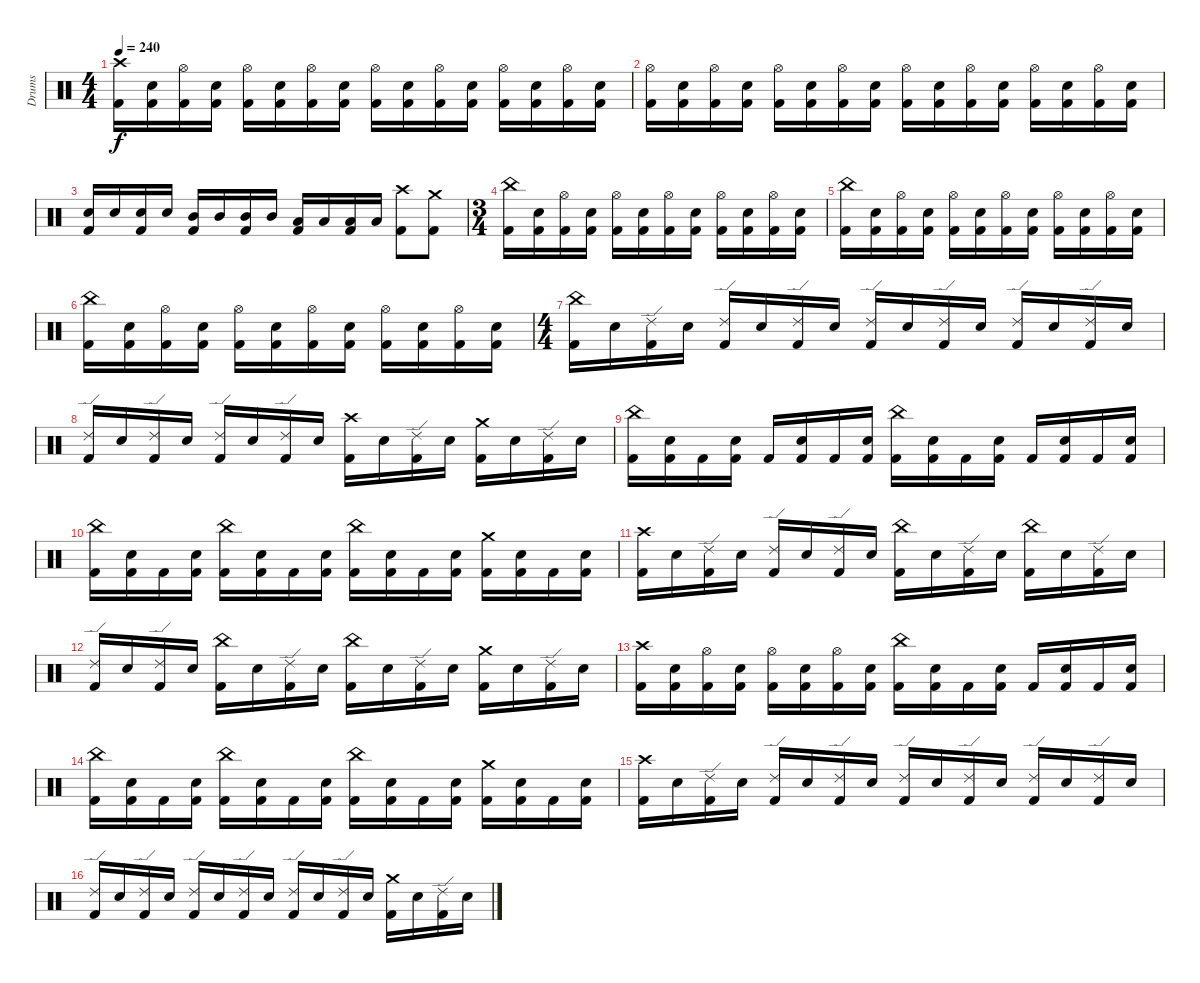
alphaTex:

\track ("Drums" "Drums") {instrument percussion}
\staff {score}
\articulation defaults
\ts (4 4)
\tempo 240
\clef neutral
\ks c
("Crash high (hit)" "Kick (hit) 2").16{dy f} ("Snare (hit) 2" "Kick (hit) 2").16 ("Hi-Hat (open)" "Kick (hit) 2").16 ("Snare (hit) 2" "Kick (hit) 2").16 ("Hi-Hat (open)" "Kick (hit) 2").16 ("Snare (hit) 2" "Kick (hit) 2").16 ("Hi-Hat (open)" "Kick (hit) 2").16 ("Snare (hit) 2" "Kick (hit) 2").16 ("Hi-Hat (open)" "Kick (hit) 2").16 ("Snare (hit) 2" "Kick (hit) 2").16 ("Hi-Hat (open)" "Kick (hit) 2").16 ("Snare (hit) 2" "Kick (hit) 2").16 ("Hi-Hat (open)" "Kick (hit) 2").16 ("Snare (hit) 2" "Kick (hit) 2").16 ("Hi-Hat (open)" "Kick (hit) 2").16 ("Snare (hit) 2" "Kick (hit) 2").16 |
("Hi-Hat (open)" "Kick (hit) 2").16 ("Snare (hit) 2" "Kick (hit) 2").16 ("Hi-Hat (open)" "Kick (hit) 2").16 ("Snare (hit) 2" "Kick (hit) 2").16 ("Hi-Hat (open)" "Kick (hit) 2").16 ("Snare (hit) 2" "Kick (hit) 2").16 ("Hi-Hat (open)" "Kick (hit) 2").16 ("Snare (hit) 2" "Kick (hit) 2").16 ("Hi-Hat (open)" "Kick (hit) 2").16 ("Snare (hit) 2" "Kick (hit) 2").16 ("Hi-Hat (open)" "Kick (hit) 2").16 ("Snare (hit) 2" "Kick (hit) 2").16 ("Hi-Hat (open)" "Kick (hit) 2").16 ("Snare (hit) 2" "Kick (hit) 2").16 ("Hi-Hat (open)" "Kick (hit) 2").16 ("Snare (hit) 2" "Kick (hit) 2").16 |
("Snare (hit) 2" "Kick (hit) 2").16 "Snare (hit) 2".16 ("Snare (hit) 2" "Kick (hit) 2").16 "Snare (hit) 2".16 ("Mid Tom (hit)" "Kick (hit) 2").16 "Mid Tom (hit)".16 ("Mid Tom (hit)" "Kick (hit) 2").16 "Mid Tom (hit)".16 ("Low Tom (hit)" "Kick (hit) 2").16 "Low Tom (hit)".16 ("Low Tom (hit)" "Kick (hit) 2").16 "Low Tom (hit)".16 ("Crash high (hit)" "Kick (hit) 2").8 ("Crash medium (hit)" "Kick (hit) 2").8 |
\ts (3 4)
("China (hit)" "Kick (hit) 2").16 ("Snare (hit) 2" "Kick (hit) 2").16 ("Hi-Hat (open)" "Kick (hit) 2").16 ("Snare (hit) 2" "Kick (hit) 2").16 ("Hi-Hat (open)" "Kick (hit) 2").16 ("Snare (hit) 2" "Kick (hit) 2").16 ("Hi-Hat (open)" "Kick (hit) 2").16 ("Snare (hit) 2" "Kick (hit) 2").16 ("Hi-Hat (open)" "Kick (hit) 2").16 ("Snare (hit) 2" "Kick (hit) 2").16 ("Hi-Hat (open)" "Kick (hit) 2").16 ("Snare (hit) 2" "Kick (hit) 2").16 |
("China (hit)" "Kick (hit) 2").16 ("Snare (hit) 2" "Kick (hit) 2").16 ("Hi-Hat (open)" "Kick (hit) 2").16 ("Snare (hit) 2" "Kick (hit) 2").16 ("Hi-Hat (open)" "Kick (hit) 2").16 ("Snare (hit) 2" "Kick (hit) 2").16 ("Hi-Hat (open)" "Kick (hit) 2").16 ("Snare (hit) 2" "Kick (hit) 2").16 ("Hi-Hat (open)" "Kick (hit) 2").16 ("Snare (hit) 2" "Kick (hit) 2").16 ("Hi-Hat (open)" "Kick (hit) 2").16 ("Snare (hit) 2" "Kick (hit) 2").16 |
("China (hit)" "Kick (hit) 2").16 ("Snare (hit) 2" "Kick (hit) 2").16 ("Hi-Hat (open)" "Kick (hit) 2").16 ("Snare (hit) 2" "Kick (hit) 2").16 ("Hi-Hat (open)" "Kick (hit) 2").16 ("Snare (hit) 2" "Kick (hit) 2").16 ("Hi-Hat (open)" "Kick (hit) 2").16 ("Snare (hit) 2" "Kick (hit) 2").16 ("Hi-Hat (open)" "Kick (hit) 2").16 ("Snare (hit) 2" "Kick (hit) 2").16 ("Hi-Hat (open)" "Kick (hit) 2").16 ("Snare (hit) 2" "Kick (hit) 2").16 |
\ts (4 4)
("China (hit)" "Kick (hit) 2").16 "Snare (hit) 2".16 ("Ride (edge) 2" "Kick (hit) 2").16 "Snare (hit) 2".16 ("Ride (edge) 2" "Kick (hit) 2").16 "Snare (hit) 2".16 ("Ride (edge) 2" "Kick (hit) 2").16 "Snare (hit) 2".16 ("Ride (edge) 2" "Kick (hit) 2").16 "Snare (hit) 2".16 ("Ride (edge) 2" "Kick (hit) 2").16 "Snare (hit) 2".16 ("Ride (edge) 2" "Kick (hit) 2").16 "Snare (hit) 2".16 ("Ride (edge) 2" "Kick (hit) 2").16 "Snare (hit) 2".16 |
("Ride (edge) 2" "Kick (hit) 2").16 "Snare (hit) 2".16 ("Ride (edge) 2" "Kick (hit) 2").16 "Snare (hit) 2".16 ("Ride (edge) 2" "Kick (hit) 2").16 "Snare (hit) 2".16 ("Ride (edge) 2" "Kick (hit) 2").16 "Snare (hit) 2".16 ("Crash high (hit)" "Kick (hit) 2").16 "Snare (hit) 2".16 ("Ride (edge) 2" "Kick (hit) 2").16 "Snare (hit) 2".16 ("Crash medium (hit)" "Kick (hit) 2").16 "Snare (hit) 2".16 ("Ride (edge) 2" "Kick (hit) 2").16 "Snare (hit) 2".16 |
("China (hit)" "Kick (hit) 2").16 ("Snare (hit) 2" "Kick (hit) 2").16 "Kick (hit) 2".16 ("Snare (hit) 2" "Kick (hit) 2").16 "Kick (hit) 2".16 ("Snare (hit) 2" "Kick (hit) 2").16 "Kick (hit) 2".16 ("Snare (hit) 2" "Kick (hit) 2").16 ("China (hit)" "Kick (hit) 2").16 ("Snare (hit) 2" "Kick (hit) 2").16 "Kick (hit) 2".16 ("Snare (hit) 2" "Kick (hit) 2").16 "Kick (hit) 2".16 ("Snare (hit) 2" "Kick (hit) 2").16 "Kick (hit) 2".16 ("Snare (hit) 2" "Kick (hit) 2").16 |
("China (hit)" "Kick (hit) 2").16 ("Snare (hit) 2" "Kick (hit) 2").16 "Kick (hit) 2".16 ("Snare (hit) 2" "Kick (hit) 2").16 ("China (hit)" "Kick (hit) 2").16 ("Snare (hit) 2" "Kick (hit) 2").16 "Kick (hit) 2".16 ("Snare (hit) 2" "Kick (hit) 2").16 ("China (hit)" "Kick (hit) 2").16 ("Snare (hit) 2" "Kick (hit) 2").16 "Kick (hit) 2".16 ("Snare (hit) 2" "Kick (hit) 2").16 ("Crash medium (hit)" "Kick (hit) 2").16 ("Snare (hit) 2" "Kick (hit) 2").16 "Kick (hit) 2".16 ("Snare (hit) 2" "Kick (hit) 2").16 |
("Crash high (hit)" "Kick (hit) 2").16 "Snare (hit) 2".16 ("Ride (edge) 2" "Kick (hit) 2").16 "Snare (hit) 2".16 ("Ride (edge) 2" "Kick (hit) 2").16 "Snare (hit) 2".16 ("Ride (edge) 2" "Kick (hit) 2").16 "Snare (hit) 2".16 ("China (hit)" "Kick (hit) 2").16 "Snare (hit) 2".16 ("Ride (edge) 2" "Kick (hit) 2").16 "Snare (hit) 2".16 ("China (hit)" "Kick (hit) 2").16 "Snare (hit) 2".16 ("Ride (edge) 2" "Kick (hit) 2").16 "Snare (hit) 2".16 |
("Ride (edge) 2" "Kick (hit) 2").16 "Snare (hit) 2".16 ("Ride (edge) 2" "Kick (hit) 2").16 "Snare (hit) 2".16 ("China (hit)" "Kick (hit) 2").16 "Snare (hit) 2".16 ("Ride (edge) 2" "Kick (hit) 2").16 "Snare (hit) 2".16 ("China (hit)" "Kick (hit) 2").16 "Snare (hit) 2".16 ("Ride (edge) 2" "Kick (hit) 2").16 "Snare (hit) 2".16 ("Crash medium (hit)" "Kick (hit) 2").16 "Snare (hit) 2".16 ("Ride (edge) 2" "Kick (hit) 2").16 "Snare (hit) 2".16 |
("Crash high (hit)" "Kick (hit) 2").16 ("Snare (hit) 2" "Kick (hit) 2").16 ("Hi-Hat (open)" "Kick (hit) 2").16 ("Snare (hit) 2" "Kick (hit) 2").16 ("Hi-Hat (open)" "Kick (hit) 2").16 ("Snare (hit) 2" "Kick (hit) 2").16 ("Hi-Hat (open)" "Kick (hit) 2").16 ("Snare (hit) 2" "Kick (hit) 2").16 ("China (hit)" "Kick (hit) 2").16 ("Snare (hit) 2" "Kick (hit) 2").16 "Kick (hit) 2".16 ("Snare (hit) 2" "Kick (hit) 2").16 "Kick (hit) 2".16 ("Snare (hit) 2" "Kick (hit) 2").16 "Kick (hit) 2".16 ("Snare (hit) 2" "Kick (hit) 2").16 |
("China (hit)" "Kick (hit) 2").16 ("Snare (hit) 2" "Kick (hit) 2").16 "Kick (hit) 2".16 ("Snare (hit) 2" "Kick (hit) 2").16 ("China (hit)" "Kick (hit) 2").16 ("Snare (hit) 2" "Kick (hit) 2").16 "Kick (hit) 2".16 ("Snare (hit) 2" "Kick (hit) 2").16 ("China (hit)" "Kick (hit) 2").16 ("Snare (hit) 2" "Kick (hit) 2").16 "Kick (hit) 2".16 ("Snare (hit) 2" "Kick (hit) 2").16 ("Crash medium (hit)" "Kick (hit) 2").16 ("Snare (hit) 2" "Kick (hit) 2").16 "Kick (hit) 2".16 ("Snare (hit) 2" "Kick (hit) 2").16 |
("Crash high (hit)" "Kick (hit) 2").16 "Snare (hit) 2".16 ("Ride (edge) 2" "Kick (hit) 2").16 "Snare (hit) 2".16 ("Ride (edge) 2" "Kick (hit) 2").16 "Snare (hit) 2".16 ("Ride (edge) 2" "Kick (hit) 2").16 "Snare (hit) 2".16 ("Ride (edge) 2" "Kick (hit) 2").16 "Snare (hit) 2".16 ("Ride (edge) 2" "Kick (hit) 2").16 "Snare (hit) 2".16 ("Ride (edge) 2" "Kick (hit) 2").16 "Snare (hit) 2".16 ("Ride (edge) 2" "Kick (hit) 2").16 "Snare (hit) 2".16 |
("Ride (edge) 2" "Kick (hit) 2").16 "Snare (hit) 2".16 ("Ride (edge) 2" "Kick (hit) 2").16 "Snare (hit) 2".16 ("Ride (edge) 2" "Kick (hit) 2").16 "Snare (hit) 2".16 ("Ride (edge) 2" "Kick (hit) 2").16 "Snare (hit) 2".16 ("Ride (edge) 2" "Kick (hit) 2").16 "Snare (hit) 2".16 ("Ride (edge) 2" "Kick (hit) 2").16 "Snare (hit) 2".16 ("Crash medium (hit)" "Kick (hit) 2").16 "Snare (hit) 2".16 ("Ride (edge) 2" "Kick (hit) 2").16 "Snare (hit) 2".16
